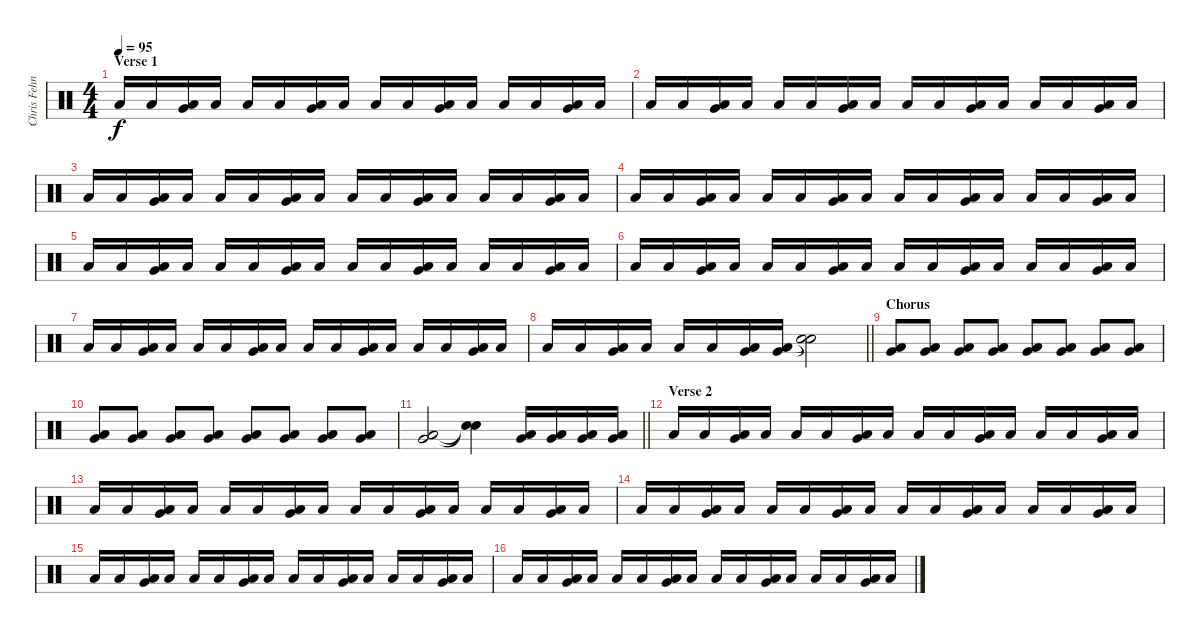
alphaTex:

\track ("Chris Fehn" "Chris Fehn") {instrument percussion}
\staff {score}
\articulation defaults
\ts (4 4)
\section ("" "Verse 1")
\tempo 95
\clef neutral
\ks c "Low Floor Tom (hit)".16{dy f} "Low Floor Tom (hit)".16
("Very Low Tom (hit)" "Low Floor Tom (hit)").16 "Low Floor Tom (hit)".16 "Low Floor Tom (hit)".16 "Low Floor Tom (hit)".16 ("Very Low Tom (hit)" "Low Floor Tom (hit)").16 "Low Floor Tom (hit)".16 "Low Floor Tom (hit)".16 "Low Floor Tom (hit)".16 ("Very Low Tom (hit)" "Low Floor Tom (hit)").16 "Low Floor Tom (hit)".16 "Low Floor Tom (hit)".16 "Low Floor Tom (hit)".16 ("Very Low Tom (hit)" "Low Floor Tom (hit)").16 "Low Floor Tom (hit)".16 |
"Low Floor Tom (hit)".16 "Low Floor Tom (hit)".16 ("Very Low Tom (hit)" "Low Floor Tom (hit)").16 "Low Floor Tom (hit)".16 "Low Floor Tom (hit)".16 "Low Floor Tom (hit)".16 ("Very Low Tom (hit)" "Low Floor Tom (hit)").16 "Low Floor Tom (hit)".16 "Low Floor Tom (hit)".16 "Low Floor Tom (hit)".16 ("Very Low Tom (hit)" "Low Floor Tom (hit)").16 "Low Floor Tom (hit)".16 "Low Floor Tom (hit)".16 "Low Floor Tom (hit)".16 ("Very Low Tom (hit)" "Low Floor Tom (hit)").16 "Low Floor Tom (hit)".16 |
"Low Floor Tom (hit)".16 "Low Floor Tom (hit)".16 ("Very Low Tom (hit)" "Low Floor Tom (hit)").16 "Low Floor Tom (hit)".16 "Low Floor Tom (hit)".16 "Low Floor Tom (hit)".16 ("Very Low Tom (hit)" "Low Floor Tom (hit)").16 "Low Floor Tom (hit)".16 "Low Floor Tom (hit)".16 "Low Floor Tom (hit)".16 ("Very Low Tom (hit)" "Low Floor Tom (hit)").16 "Low Floor Tom (hit)".16 "Low Floor Tom (hit)".16 "Low Floor Tom (hit)".16 ("Very Low Tom (hit)" "Low Floor Tom (hit)").16 "Low Floor Tom (hit)".16 |
"Low Floor Tom (hit)".16 "Low Floor Tom (hit)".16 ("Very Low Tom (hit)" "Low Floor Tom (hit)").16 "Low Floor Tom (hit)".16 "Low Floor Tom (hit)".16 "Low Floor Tom (hit)".16 ("Very Low Tom (hit)" "Low Floor Tom (hit)").16 "Low Floor Tom (hit)".16 "Low Floor Tom (hit)".16 "Low Floor Tom (hit)".16 ("Very Low Tom (hit)" "Low Floor Tom (hit)").16 "Low Floor Tom (hit)".16 "Low Floor Tom (hit)".16 "Low Floor Tom (hit)".16 ("Very Low Tom (hit)" "Low Floor Tom (hit)").16 "Low Floor Tom (hit)".16 |
"Low Floor Tom (hit)".16 "Low Floor Tom (hit)".16 ("Very Low Tom (hit)" "Low Floor Tom (hit)").16 "Low Floor Tom (hit)".16 "Low Floor Tom (hit)".16 "Low Floor Tom (hit)".16 ("Very Low Tom (hit)" "Low Floor Tom (hit)").16 "Low Floor Tom (hit)".16 "Low Floor Tom (hit)".16 "Low Floor Tom (hit)".16 ("Very Low Tom (hit)" "Low Floor Tom (hit)").16 "Low Floor Tom (hit)".16 "Low Floor Tom (hit)".16 "Low Floor Tom (hit)".16 ("Very Low Tom (hit)" "Low Floor Tom (hit)").16 "Low Floor Tom (hit)".16 |
"Low Floor Tom (hit)".16 "Low Floor Tom (hit)".16 ("Very Low Tom (hit)" "Low Floor Tom (hit)").16 "Low Floor Tom (hit)".16 "Low Floor Tom (hit)".16 "Low Floor Tom (hit)".16 ("Very Low Tom (hit)" "Low Floor Tom (hit)").16 "Low Floor Tom (hit)".16 "Low Floor Tom (hit)".16 "Low Floor Tom (hit)".16 ("Very Low Tom (hit)" "Low Floor Tom (hit)").16 "Low Floor Tom (hit)".16 "Low Floor Tom (hit)".16 "Low Floor Tom (hit)".16 ("Very Low Tom (hit)" "Low Floor Tom (hit)").16 "Low Floor Tom (hit)".16 |
"Low Floor Tom (hit)".16 "Low Floor Tom (hit)".16 ("Very Low Tom (hit)" "Low Floor Tom (hit)").16 "Low Floor Tom (hit)".16 "Low Floor Tom (hit)".16 "Low Floor Tom (hit)".16 ("Very Low Tom (hit)" "Low Floor Tom (hit)").16 "Low Floor Tom (hit)".16 "Low Floor Tom (hit)".16 "Low Floor Tom (hit)".16 ("Very Low Tom (hit)" "Low Floor Tom (hit)").16 "Low Floor Tom (hit)".16 "Low Floor Tom (hit)".16 "Low Floor Tom (hit)".16 ("Very Low Tom (hit)" "Low Floor Tom (hit)").16 "Low Floor Tom (hit)".16 |
\barLineRight lightlight "Low Floor Tom (hit)".16 "Low Floor Tom (hit)".16
("Very Low Tom (hit)" "Low Floor Tom (hit)").16 "Low Floor Tom (hit)".16 "Low Floor Tom (hit)".16 "Low Floor Tom (hit)".16 ("Very Low Tom (hit)" "Low Floor Tom (hit)").16 ("Very Low Tom (hit)" "Low Floor Tom (hit)").16 ("Snare (hit)"{t} "Snare (hit)"{t}).2 |
\section ("" "Chorus")
("Very Low Tom (hit)" "Low Floor Tom (hit)").8 ("Very Low Tom (hit)" "Low Floor Tom (hit)").8 ("Very Low Tom (hit)" "Low Floor Tom (hit)").8 ("Very Low Tom (hit)" "Low Floor Tom (hit)").8 ("Very Low Tom (hit)" "Low Floor Tom (hit)").8 ("Very Low Tom (hit)" "Low Floor Tom (hit)").8 ("Very Low Tom (hit)" "Low Floor Tom (hit)").8 ("Very Low Tom (hit)" "Low Floor Tom (hit)").8 |
("Very Low Tom (hit)" "Low Floor Tom (hit)").8 ("Very Low Tom (hit)" "Low Floor Tom (hit)").8 ("Very Low Tom (hit)" "Low Floor Tom (hit)").8 ("Very Low Tom (hit)" "Low Floor Tom (hit)").8 ("Very Low Tom (hit)" "Low Floor Tom (hit)").8 ("Very Low Tom (hit)" "Low Floor Tom (hit)").8 ("Very Low Tom (hit)" "Low Floor Tom (hit)").8 ("Very Low Tom (hit)" "Low Floor Tom (hit)").8 |
\barLineRight lightlight
("Very Low Tom (hit)" "Low Floor Tom (hit)").2 ("Snare (hit)"{t} "Snare (hit)"{t}).4 ("Very Low Tom (hit)" "Low Floor Tom (hit)").16 ("Very Low Tom (hit)" "Low Floor Tom (hit)").16 ("Very Low Tom (hit)" "Low Floor Tom (hit)").16 ("Very Low Tom (hit)" "Low Floor Tom (hit)").16 |
\section ("" "Verse 2")
"Low Floor Tom (hit)".16 "Low Floor Tom (hit)".16 ("Very Low Tom (hit)" "Low Floor Tom (hit)").16 "Low Floor Tom (hit)".16 "Low Floor Tom (hit)".16 "Low Floor Tom (hit)".16 ("Very Low Tom (hit)" "Low Floor Tom (hit)").16 "Low Floor Tom (hit)".16 "Low Floor Tom (hit)".16 "Low Floor Tom (hit)".16 ("Very Low Tom (hit)" "Low Floor Tom (hit)").16 "Low Floor Tom (hit)".16 "Low Floor Tom (hit)".16 "Low Floor Tom (hit)".16 ("Very Low Tom (hit)" "Low Floor Tom (hit)").16 "Low Floor Tom (hit)".16 |
"Low Floor Tom (hit)".16 "Low Floor Tom (hit)".16 ("Very Low Tom (hit)" "Low Floor Tom (hit)").16 "Low Floor Tom (hit)".16 "Low Floor Tom (hit)".16 "Low Floor Tom (hit)".16 ("Very Low Tom (hit)" "Low Floor Tom (hit)").16 "Low Floor Tom (hit)".16 "Low Floor Tom (hit)".16 "Low Floor Tom (hit)".16 ("Very Low Tom (hit)" "Low Floor Tom (hit)").16 "Low Floor Tom (hit)".16 "Low Floor Tom (hit)".16 "Low Floor Tom (hit)".16 ("Very Low Tom (hit)" "Low Floor Tom (hit)").16 "Low Floor Tom (hit)".16 |
"Low Floor Tom (hit)".16 "Low Floor Tom (hit)".16 ("Very Low Tom (hit)" "Low Floor Tom (hit)").16 "Low Floor Tom (hit)".16 "Low Floor Tom (hit)".16 "Low Floor Tom (hit)".16 ("Very Low Tom (hit)" "Low Floor Tom (hit)").16 "Low Floor Tom (hit)".16 "Low Floor Tom (hit)".16 "Low Floor Tom (hit)".16 ("Very Low Tom (hit)" "Low Floor Tom (hit)").16 "Low Floor Tom (hit)".16 "Low Floor Tom (hit)".16 "Low Floor Tom (hit)".16 ("Very Low Tom (hit)" "Low Floor Tom (hit)").16 "Low Floor Tom (hit)".16 |
"Low Floor Tom (hit)".16 "Low Floor Tom (hit)".16 ("Very Low Tom (hit)" "Low Floor Tom (hit)").16 "Low Floor Tom (hit)".16 "Low Floor Tom (hit)".16 "Low Floor Tom (hit)".16 ("Very Low Tom (hit)" "Low Floor Tom (hit)").16 "Low Floor Tom (hit)".16 "Low Floor Tom (hit)".16 "Low Floor Tom (hit)".16 ("Very Low Tom (hit)" "Low Floor Tom (hit)").16 "Low Floor Tom (hit)".16 "Low Floor Tom (hit)".16 "Low Floor Tom (hit)".16 ("Very Low Tom (hit)" "Low Floor Tom (hit)").16 "Low Floor Tom (hit)".16 |
"Low Floor Tom (hit)".16 "Low Floor Tom (hit)".16 ("Very Low Tom (hit)" "Low Floor Tom (hit)").16 "Low Floor Tom (hit)".16 "Low Floor Tom (hit)".16 "Low Floor Tom (hit)".16 ("Very Low Tom (hit)" "Low Floor Tom (hit)").16 "Low Floor Tom (hit)".16 "Low Floor Tom (hit)".16 "Low Floor Tom (hit)".16 ("Very Low Tom (hit)" "Low Floor Tom (hit)").16 "Low Floor Tom (hit)".16 "Low Floor Tom (hit)".16 "Low Floor Tom (hit)".16 ("Very Low Tom (hit)" "Low Floor Tom (hit)").16 "Low Floor Tom (hit)".16
